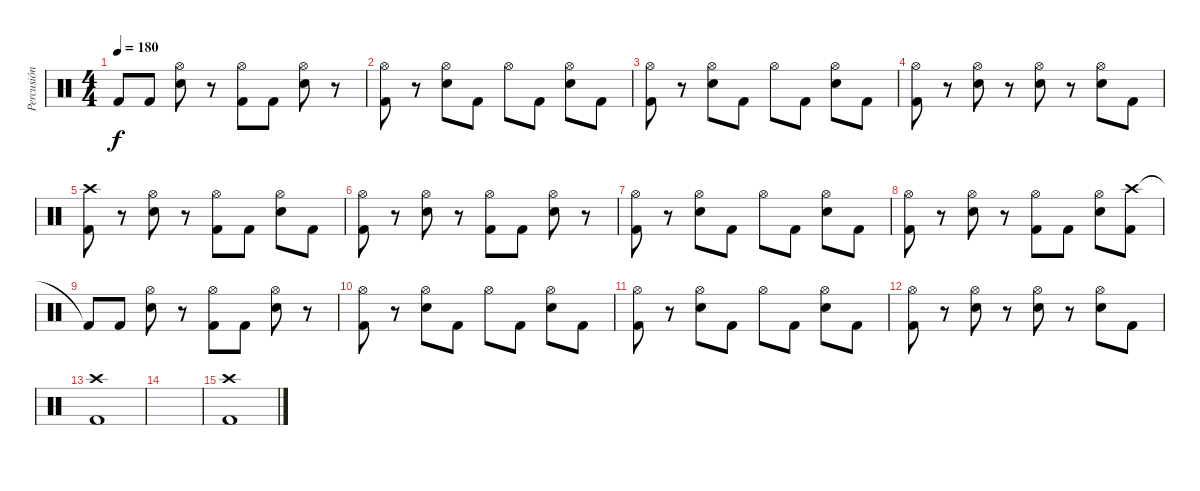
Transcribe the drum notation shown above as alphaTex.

\track ("Percusión" "Percusión") {instrument percussion}
\staff {score}
\articulation defaults
\ts (4 4)
\tempo 180
\clef neutral
\ks c "Kick (hit) 2"{t}.8{dy f} "Kick (hit) 2".8
("Hi-Hat (open)" "Electric Snare (hit)").8 r.8 ("Hi-Hat (open)" "Kick (hit) 2").8 "Kick (hit) 2".8 ("Hi-Hat (open)" "Electric Snare (hit)").8 r.8 |
("Hi-Hat (open)" "Kick (hit) 2").8 r.8 ("Hi-Hat (open)" "Electric Snare (hit)").8 "Kick (hit) 2".8 "Hi-Hat (open)".8 "Kick (hit) 2".8 ("Hi-Hat (open)" "Electric Snare (hit)").8 "Kick (hit) 2".8 |
("Hi-Hat (open)" "Kick (hit) 2").8 r.8 ("Hi-Hat (open)" "Electric Snare (hit)").8 "Kick (hit) 2".8 "Hi-Hat (open)".8 "Kick (hit) 2".8 ("Hi-Hat (open)" "Electric Snare (hit)").8 "Kick (hit) 2".8 |
("Hi-Hat (open)" "Kick (hit) 2").8 r.8 ("Hi-Hat (open)" "Electric Snare (hit)").8 r.8 ("Hi-Hat (open)" "Electric Snare (hit)").8 r.8 ("Hi-Hat (open)" "Electric Snare (hit)").8 "Kick (hit) 2".8 |
("Crash high (hit)" "Kick (hit) 2").8 r.8 ("Hi-Hat (open)" "Electric Snare (hit)").8 r.8 ("Hi-Hat (open)" "Kick (hit) 2").8 "Kick (hit) 2".8 ("Hi-Hat (open)" "Electric Snare (hit)").8 "Kick (hit) 2".8 |
("Hi-Hat (open)" "Kick (hit) 2").8 r.8 ("Hi-Hat (open)" "Electric Snare (hit)").8 r.8 ("Hi-Hat (open)" "Kick (hit) 2").8 "Kick (hit) 2".8 ("Hi-Hat (open)" "Electric Snare (hit)").8 r.8 |
("Hi-Hat (open)" "Kick (hit) 2").8 r.8 ("Hi-Hat (open)" "Electric Snare (hit)").8 "Kick (hit) 2".8 "Hi-Hat (open)".8 "Kick (hit) 2".8 ("Hi-Hat (open)" "Electric Snare (hit)").8 "Kick (hit) 2".8 |
("Hi-Hat (open)" "Kick (hit) 2").8 r.8 ("Hi-Hat (open)" "Electric Snare (hit)").8 r.8 ("Hi-Hat (open)" "Kick (hit) 2").8 "Kick (hit) 2".8 ("Hi-Hat (open)" "Electric Snare (hit)").8 ("Crash high (hit)" "Kick (hit) 2").8 |
"Kick (hit) 2"{t}.8 "Kick (hit) 2".8 ("Hi-Hat (open)" "Electric Snare (hit)").8 r.8 ("Hi-Hat (open)" "Kick (hit) 2").8 "Kick (hit) 2".8 ("Hi-Hat (open)" "Electric Snare (hit)").8 r.8 |
("Hi-Hat (open)" "Kick (hit) 2").8 r.8 ("Hi-Hat (open)" "Electric Snare (hit)").8 "Kick (hit) 2".8 "Hi-Hat (open)".8 "Kick (hit) 2".8 ("Hi-Hat (open)" "Electric Snare (hit)").8 "Kick (hit) 2".8 |
("Hi-Hat (open)" "Kick (hit) 2").8 r.8 ("Hi-Hat (open)" "Electric Snare (hit)").8 "Kick (hit) 2".8 "Hi-Hat (open)".8 "Kick (hit) 2".8 ("Hi-Hat (open)" "Electric Snare (hit)").8 "Kick (hit) 2".8 |
("Hi-Hat (open)" "Kick (hit) 2").8 r.8 ("Hi-Hat (open)" "Electric Snare (hit)").8 r.8 ("Hi-Hat (open)" "Electric Snare (hit)").8 r.8 ("Hi-Hat (open)" "Electric Snare (hit)").8 "Kick (hit) 2".8 |
("Crash high (hit)" "Kick (hit) 2").1 |
|
("Crash high (hit)" "Kick (hit) 2").1
